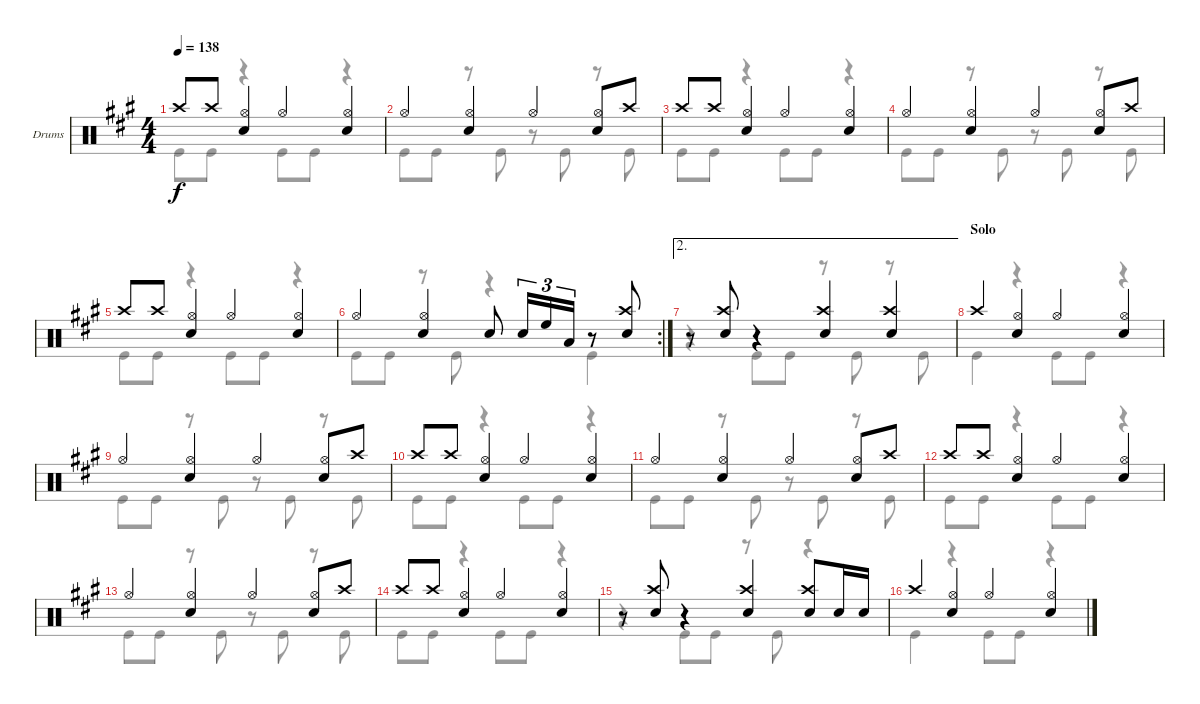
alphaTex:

\defaultSystemsLayout 4
\bracketExtendMode groupsimilarinstruments
\firstSystemTrackNameOrientation horizontal
\otherSystemsTrackNameOrientation horizontal
\track ("Drumkit" "Drums") {instrument percussion}
\staff {score}
\articulation defaults
\voice
\ts (4 4)
\tempo 138
\clef neutral
\ks a "Crash high (hit)".8{dy f} "Crash high (hit)".8
("Hi-Hat (open)" "Snare (hit) 2").4 "Hi-Hat (open)".4 ("Hi-Hat (open)" "Snare (hit) 2").4 |
"Hi-Hat (open)".4 ("Snare (hit) 2" "Hi-Hat (open)").4 "Hi-Hat (open)".4 ("Snare (hit) 2" "Hi-Hat (open)").8 "Crash high (hit)".8 |
"Crash high (hit)".8 "Crash high (hit)".8 ("Hi-Hat (open)" "Snare (hit) 2").4 "Hi-Hat (open)".4 ("Hi-Hat (open)" "Snare (hit) 2").4 |
"Hi-Hat (open)".4 ("Snare (hit) 2" "Hi-Hat (open)").4 "Hi-Hat (open)".4 ("Snare (hit) 2" "Hi-Hat (open)").8 "Crash high (hit)".8 |
"Crash high (hit)".8 "Crash high (hit)".8 ("Hi-Hat (open)" "Snare (hit) 2").4 "Hi-Hat (open)".4 ("Hi-Hat (open)" "Snare (hit) 2").4 |
\rc 2 "Hi-Hat (open)".4
("Hi-Hat (open)" "Snare (hit) 2").4 "Snare (hit) 2".8 "Snare (hit) 2".16{tu (3 2)} "High Floor Tom (hit)".16{tu (3 2)} "Low Tom (hit)".16{tu (3 2)} r.8 ("Snare (hit) 2" "Crash high (hit)").8 |
\ae 2
r.8 ("Crash high (hit)" "Snare (hit) 2").8 r.4 ("Crash high (hit)" "Snare (hit) 2").4 ("Crash high (hit)" "Snare (hit) 2").4 |
\section ("" "Solo")
"Crash high (hit)".4 ("Hi-Hat (open)" "Snare (hit) 2").4 "Hi-Hat (open)".4 ("Hi-Hat (open)" "Snare (hit) 2").4 |
"Hi-Hat (open)".4 ("Snare (hit) 2" "Hi-Hat (open)").4 "Hi-Hat (open)".4 ("Snare (hit) 2" "Hi-Hat (open)").8 "Crash high (hit)".8 |
"Crash high (hit)".8 "Crash high (hit)".8 ("Hi-Hat (open)" "Snare (hit) 2").4 "Hi-Hat (open)".4 ("Hi-Hat (open)" "Snare (hit) 2").4 |
"Hi-Hat (open)".4 ("Snare (hit) 2" "Hi-Hat (open)").4 "Hi-Hat (open)".4 ("Snare (hit) 2" "Hi-Hat (open)").8 "Crash high (hit)".8 |
"Crash high (hit)".8 "Crash high (hit)".8 ("Hi-Hat (open)" "Snare (hit) 2").4 "Hi-Hat (open)".4 ("Hi-Hat (open)" "Snare (hit) 2").4 |
"Hi-Hat (open)".4 ("Snare (hit) 2" "Hi-Hat (open)").4 "Hi-Hat (open)".4 ("Snare (hit) 2" "Hi-Hat (open)").8 "Crash high (hit)".8 |
"Crash high (hit)".8 "Crash high (hit)".8 ("Hi-Hat (open)" "Snare (hit) 2").4 "Hi-Hat (open)".4 ("Hi-Hat (open)" "Snare (hit) 2").4 |
r.8 ("Crash high (hit)" "Snare (hit) 2").8 r.4 ("Crash high (hit)" "Snare (hit) 2").4 ("Crash high (hit)" "Snare (hit) 2").8 "Snare (hit) 2".16 "Snare (hit) 2".16 |
"Crash high (hit)".4 ("Hi-Hat (open)" "Snare (hit) 2").4 "Hi-Hat (open)".4 ("Hi-Hat (open)" "Snare (hit) 2").4
\voice
\clef neutral
\ottava regular
\simile none
\ks a "Kick (hit)".8{dy f} "Kick (hit)".8
r.4 "Kick (hit)".8 "Kick (hit)".8 r.4 |
"Kick (hit)".8 "Kick (hit)".8 r.8 "Kick (hit)".8 r.8 "Kick (hit)".8 r.8 "Kick (hit)".8 |
"Kick (hit)".8 "Kick (hit)".8 r.4 "Kick (hit)".8 "Kick (hit)".8 r.4 |
"Kick (hit)".8 "Kick (hit)".8 r.8 "Kick (hit)".8 r.8 "Kick (hit)".8 r.8 "Kick (hit)".8 |
"Kick (hit)".8 "Kick (hit)".8 r.4 "Kick (hit)".8 "Kick (hit)".8 r.4 |
"Kick (hit)".8 "Kick (hit)".8 r.8 "Kick (hit)".8 r.4 "Kick (hit)".4 |
r.4 "Kick (hit)".8 "Kick (hit)".8 r.8 "Kick (hit)".8 r.8 "Kick (hit)".8 |
"Kick (hit)".4 r.4 "Kick (hit)".8 "Kick (hit)".8 r.4 |
"Kick (hit)".8 "Kick (hit)".8 r.8 "Kick (hit)".8 r.8 "Kick (hit)".8 r.8 "Kick (hit)".8 |
"Kick (hit)".8 "Kick (hit)".8 r.4 "Kick (hit)".8 "Kick (hit)".8 r.4 |
"Kick (hit)".8 "Kick (hit)".8 r.8 "Kick (hit)".8 r.8 "Kick (hit)".8 r.8 "Kick (hit)".8 |
"Kick (hit)".8 "Kick (hit)".8 r.4 "Kick (hit)".8 "Kick (hit)".8 r.4 |
"Kick (hit)".8 "Kick (hit)".8 r.8 "Kick (hit)".8 r.8 "Kick (hit)".8 r.8 "Kick (hit)".8 |
"Kick (hit)".8 "Kick (hit)".8 r.4 "Kick (hit)".8 "Kick (hit)".8 r.4 |
r.4 "Kick (hit)".8 "Kick (hit)".8 r.8 "Kick (hit)".8 r.4 |
"Kick (hit)".4 r.4 "Kick (hit)".8 "Kick (hit)".8 r.4
